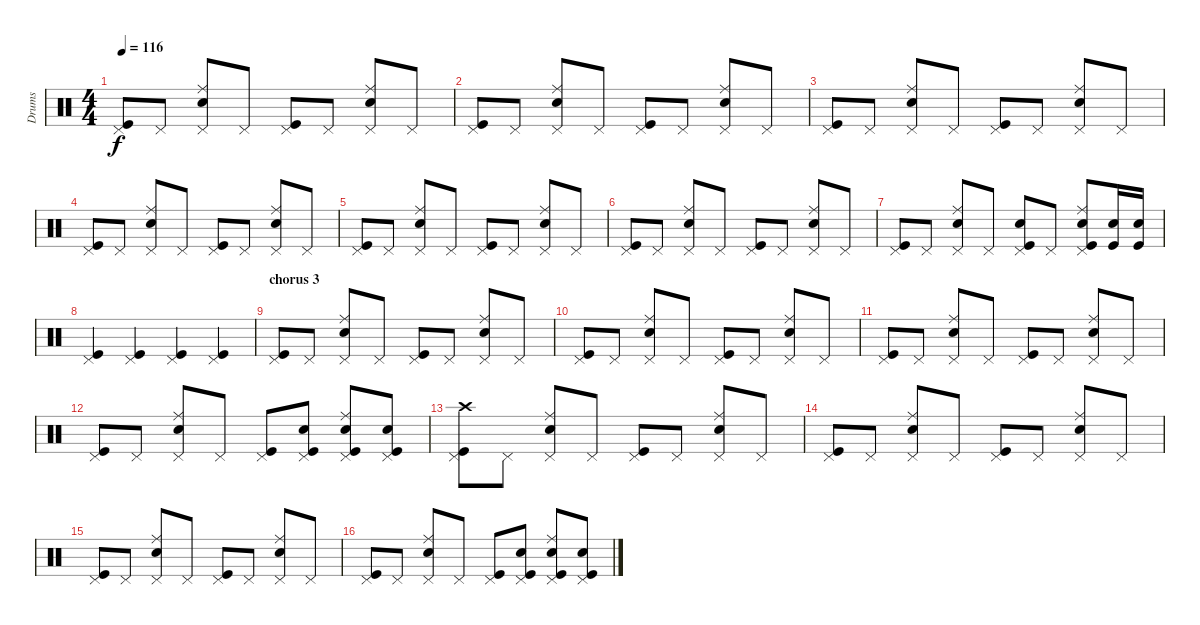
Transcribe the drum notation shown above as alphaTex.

\track ("Drums" "Drums") {instrument percussion}
\staff {score}
\articulation defaults
\ts (4 4)
\tempo 116
\clef neutral
\ks c
("Pedal Hi-Hat (hit)" "Kick (hit)").8{dy f} "Pedal Hi-Hat (hit)".8 ("Ride (middle)" "Electric Snare (hit)" "Pedal Hi-Hat (hit)").8 "Pedal Hi-Hat (hit)".8 ("Pedal Hi-Hat (hit)" "Kick (hit)").8 "Pedal Hi-Hat (hit)".8 ("Ride (middle)" "Electric Snare (hit)" "Pedal Hi-Hat (hit)").8 "Pedal Hi-Hat (hit)".8 |
("Pedal Hi-Hat (hit)" "Kick (hit)").8 "Pedal Hi-Hat (hit)".8 ("Ride (middle)" "Electric Snare (hit)" "Pedal Hi-Hat (hit)").8 "Pedal Hi-Hat (hit)".8 ("Pedal Hi-Hat (hit)" "Kick (hit)").8 "Pedal Hi-Hat (hit)".8 ("Ride (middle)" "Electric Snare (hit)" "Pedal Hi-Hat (hit)").8 "Pedal Hi-Hat (hit)".8 |
("Pedal Hi-Hat (hit)" "Kick (hit)").8 "Pedal Hi-Hat (hit)".8 ("Ride (middle)" "Electric Snare (hit)" "Pedal Hi-Hat (hit)").8 "Pedal Hi-Hat (hit)".8 ("Pedal Hi-Hat (hit)" "Kick (hit)").8 "Pedal Hi-Hat (hit)".8 ("Ride (middle)" "Electric Snare (hit)" "Pedal Hi-Hat (hit)").8 "Pedal Hi-Hat (hit)".8 |
("Pedal Hi-Hat (hit)" "Kick (hit)").8 "Pedal Hi-Hat (hit)".8 ("Ride (middle)" "Electric Snare (hit)" "Pedal Hi-Hat (hit)").8 "Pedal Hi-Hat (hit)".8 ("Pedal Hi-Hat (hit)" "Kick (hit)").8 "Pedal Hi-Hat (hit)".8 ("Ride (middle)" "Electric Snare (hit)" "Pedal Hi-Hat (hit)").8 "Pedal Hi-Hat (hit)".8 |
("Pedal Hi-Hat (hit)" "Kick (hit)").8 "Pedal Hi-Hat (hit)".8 ("Ride (middle)" "Electric Snare (hit)" "Pedal Hi-Hat (hit)").8 "Pedal Hi-Hat (hit)".8 ("Pedal Hi-Hat (hit)" "Kick (hit)").8 "Pedal Hi-Hat (hit)".8 ("Ride (middle)" "Electric Snare (hit)" "Pedal Hi-Hat (hit)").8 "Pedal Hi-Hat (hit)".8 |
("Pedal Hi-Hat (hit)" "Kick (hit)").8 "Pedal Hi-Hat (hit)".8 ("Ride (middle)" "Electric Snare (hit)" "Pedal Hi-Hat (hit)").8 "Pedal Hi-Hat (hit)".8 ("Pedal Hi-Hat (hit)" "Kick (hit)").8 "Pedal Hi-Hat (hit)".8 ("Ride (middle)" "Electric Snare (hit)" "Pedal Hi-Hat (hit)").8 "Pedal Hi-Hat (hit)".8 |
("Pedal Hi-Hat (hit)" "Kick (hit)").8 "Pedal Hi-Hat (hit)".8 ("Ride (middle)" "Electric Snare (hit)" "Pedal Hi-Hat (hit)").8 "Pedal Hi-Hat (hit)".8 ("Electric Snare (hit)" "Pedal Hi-Hat (hit)" "Kick (hit)").8 "Pedal Hi-Hat (hit)".8 ("Ride (middle)" "Electric Snare (hit)" "Pedal Hi-Hat (hit)" "Kick (hit)").8 ("Electric Snare (hit)" "Kick (hit)").16 ("Electric Snare (hit)" "Kick (hit)").16 |
("Pedal Hi-Hat (hit)" "Kick (hit)").4 ("Pedal Hi-Hat (hit)" "Kick (hit)").4 ("Pedal Hi-Hat (hit)" "Kick (hit)").4 ("Pedal Hi-Hat (hit)" "Kick (hit)").4 |
\section ("" "chorus 3")
("Pedal Hi-Hat (hit)" "Kick (hit)").8 "Pedal Hi-Hat (hit)".8 ("Ride (middle)" "Electric Snare (hit)" "Pedal Hi-Hat (hit)").8 "Pedal Hi-Hat (hit)".8 ("Pedal Hi-Hat (hit)" "Kick (hit)").8 "Pedal Hi-Hat (hit)".8 ("Ride (middle)" "Electric Snare (hit)" "Pedal Hi-Hat (hit)").8 "Pedal Hi-Hat (hit)".8 |
("Pedal Hi-Hat (hit)" "Kick (hit)").8 "Pedal Hi-Hat (hit)".8 ("Ride (middle)" "Electric Snare (hit)" "Pedal Hi-Hat (hit)").8 "Pedal Hi-Hat (hit)".8 ("Pedal Hi-Hat (hit)" "Kick (hit)").8 "Pedal Hi-Hat (hit)".8 ("Ride (middle)" "Electric Snare (hit)" "Pedal Hi-Hat (hit)").8 "Pedal Hi-Hat (hit)".8 |
("Pedal Hi-Hat (hit)" "Kick (hit)").8 "Pedal Hi-Hat (hit)".8 ("Ride (middle)" "Electric Snare (hit)" "Pedal Hi-Hat (hit)").8 "Pedal Hi-Hat (hit)".8 ("Pedal Hi-Hat (hit)" "Kick (hit)").8 "Pedal Hi-Hat (hit)".8 ("Ride (middle)" "Electric Snare (hit)" "Pedal Hi-Hat (hit)").8 "Pedal Hi-Hat (hit)".8 |
("Pedal Hi-Hat (hit)" "Kick (hit)").8 "Pedal Hi-Hat (hit)".8 ("Ride (middle)" "Electric Snare (hit)" "Pedal Hi-Hat (hit)").8 "Pedal Hi-Hat (hit)".8 ("Pedal Hi-Hat (hit)" "Kick (hit)").8 ("Electric Snare (hit)" "Pedal Hi-Hat (hit)" "Kick (hit)").8 ("Ride (middle)" "Electric Snare (hit)" "Pedal Hi-Hat (hit)" "Kick (hit)").8 ("Electric Snare (hit)" "Pedal Hi-Hat (hit)" "Kick (hit)").8 |
("Crash high (hit)" "Pedal Hi-Hat (hit)" "Kick (hit)").8 "Pedal Hi-Hat (hit)".8 ("Ride (middle)" "Electric Snare (hit)" "Pedal Hi-Hat (hit)").8 "Pedal Hi-Hat (hit)".8 ("Pedal Hi-Hat (hit)" "Kick (hit)").8 "Pedal Hi-Hat (hit)".8 ("Ride (middle)" "Electric Snare (hit)" "Pedal Hi-Hat (hit)").8 "Pedal Hi-Hat (hit)".8 |
("Pedal Hi-Hat (hit)" "Kick (hit)").8 "Pedal Hi-Hat (hit)".8 ("Ride (middle)" "Electric Snare (hit)" "Pedal Hi-Hat (hit)").8 "Pedal Hi-Hat (hit)".8 ("Pedal Hi-Hat (hit)" "Kick (hit)").8 "Pedal Hi-Hat (hit)".8 ("Ride (middle)" "Electric Snare (hit)" "Pedal Hi-Hat (hit)").8 "Pedal Hi-Hat (hit)".8 |
("Pedal Hi-Hat (hit)" "Kick (hit)").8 "Pedal Hi-Hat (hit)".8 ("Ride (middle)" "Electric Snare (hit)" "Pedal Hi-Hat (hit)").8 "Pedal Hi-Hat (hit)".8 ("Pedal Hi-Hat (hit)" "Kick (hit)").8 "Pedal Hi-Hat (hit)".8 ("Ride (middle)" "Electric Snare (hit)" "Pedal Hi-Hat (hit)").8 "Pedal Hi-Hat (hit)".8 |
("Pedal Hi-Hat (hit)" "Kick (hit)").8 "Pedal Hi-Hat (hit)".8 ("Ride (middle)" "Electric Snare (hit)" "Pedal Hi-Hat (hit)").8 "Pedal Hi-Hat (hit)".8 ("Pedal Hi-Hat (hit)" "Kick (hit)").8 ("Electric Snare (hit)" "Pedal Hi-Hat (hit)" "Kick (hit)").8 ("Ride (middle)" "Electric Snare (hit)" "Pedal Hi-Hat (hit)" "Kick (hit)").8 ("Electric Snare (hit)" "Pedal Hi-Hat (hit)" "Kick (hit)").8
